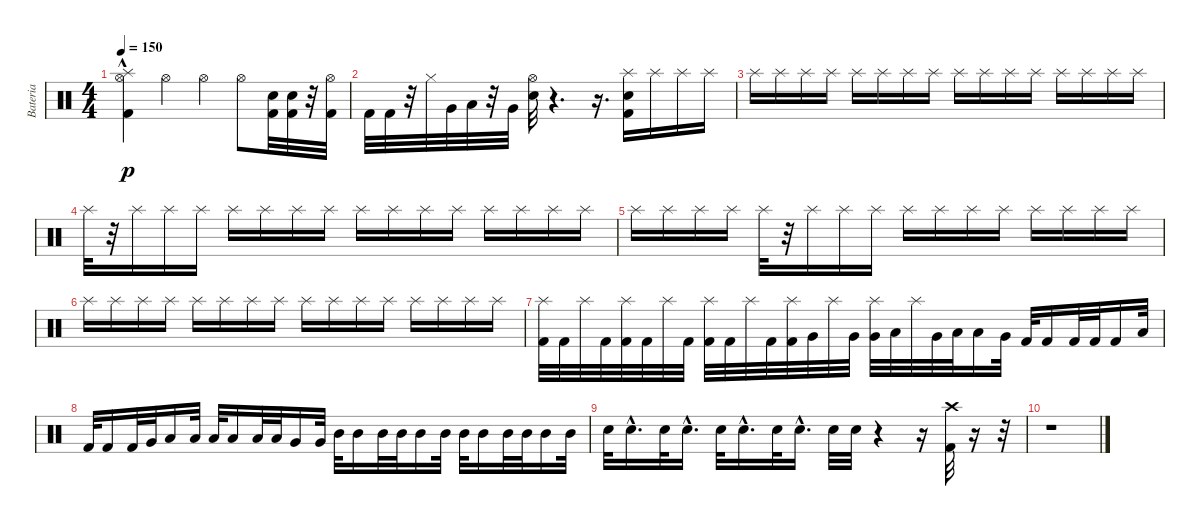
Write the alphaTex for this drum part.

\track ("Bateria" "Bateria") {instrument percussion}
\staff {score}
\articulation defaults
\ts (4 4)
\tempo 150
\clef neutral
\ks c
("Hi-Hat (open)" "Kick (hit) 2"{hac} "Splash (hit)"{hac}).4{dy p} "Hi-Hat (open)".4 "Hi-Hat (open)".4 "Hi-Hat (open)".8 ("Snare (hit) 2" "Kick (hit) 2").32 ("Snare (hit) 2" "Kick (hit) 2").32 r.32 ("Hi-Hat (open)" "Kick (hit) 2").32 |
"Kick (hit) 2".32 "Kick (hit) 2".32 r.32 "Hi-Hat (closed)".32 "Very Low Tom (hit)".32 "Low Tom (hit)".32 r.32 "Very Low Tom (hit)".32 ("Hi-Hat (open)" "Snare (hit) 2").32 r.4{d} r.16{d} ("Splash (hit)" "Snare (hit) 2" "Kick (hit) 2").16 "Splash (hit)".16 "Splash (hit)".16 "Splash (hit)".16 |
"Splash (hit)".16 "Splash (hit)".16 "Splash (hit)".16 "Splash (hit)".16 "Splash (hit)".16 "Splash (hit)".16 "Splash (hit)".16 "Splash (hit)".16 "Splash (hit)".16 "Splash (hit)".16 "Splash (hit)".16 "Splash (hit)".16 "Splash (hit)".16 "Splash (hit)".16 "Splash (hit)".16 "Splash (hit)".16 |
"Splash (hit)".32 r.32 "Splash (hit)".16 "Splash (hit)".16 "Splash (hit)".16 "Splash (hit)".16 "Splash (hit)".16 "Splash (hit)".16 "Splash (hit)".16 "Splash (hit)".16 "Splash (hit)".16 "Splash (hit)".16 "Splash (hit)".16 "Splash (hit)".16 "Splash (hit)".16 "Splash (hit)".16 "Splash (hit)".16 |
"Splash (hit)".16 "Splash (hit)".16 "Splash (hit)".16 "Splash (hit)".16 "Splash (hit)".32 r.32 "Splash (hit)".16 "Splash (hit)".16 "Splash (hit)".16 "Splash (hit)".16 "Splash (hit)".16 "Splash (hit)".16 "Splash (hit)".16 "Splash (hit)".16 "Splash (hit)".16 "Splash (hit)".16 "Splash (hit)".16 |
"Splash (hit)".16 "Splash (hit)".16 "Splash (hit)".16 "Splash (hit)".16 "Splash (hit)".16 "Splash (hit)".16 "Splash (hit)".16 "Splash (hit)".16 "Splash (hit)".16 "Splash (hit)".16 "Splash (hit)".16 "Splash (hit)".16 "Splash (hit)".16 "Splash (hit)".16 "Splash (hit)".16 "Splash (hit)".16 |
("Splash (hit)" "Kick (hit) 2").32 "Kick (hit) 2".32 "Splash (hit)".32 "Kick (hit) 2".32 ("Splash (hit)" "Kick (hit) 2").32 "Kick (hit) 2".32 "Splash (hit)".32 "Kick (hit) 2".32 ("Splash (hit)" "Kick (hit) 2").32 "Kick (hit) 2".32 "Splash (hit)".32 "Kick (hit) 2".32 ("Splash (hit)" "Kick (hit) 2").32 "Very Low Tom (hit)".32 "Splash (hit)".32 "Very Low Tom (hit)".32 ("Splash (hit)" "Very Low Tom (hit)").32 "Low Tom (hit)".32 "Splash (hit)".32 "Very Low Tom (hit)".32 "Low Tom (hit)".32 "Low Tom (hit)".16 "Very Low Tom (hit)".32 "Kick (hit) 2".32 "Kick (hit) 2".16 "Kick (hit) 2".32 "Kick (hit) 2".32 "Kick (hit) 2".16 "Low Tom (hit)".32 |
"Kick (hit) 2".32 "Kick (hit) 2".16 "Kick (hit) 2".32 "Very Low Tom (hit)".32 "Low Tom (hit)".16 "Low Tom (hit)".32 "Low Tom (hit)".32 "Low Tom (hit)".16 "Low Tom (hit)".32 "Low Tom (hit)".32 "Very Low Tom (hit)".16 "Very Low Tom (hit)".32 "Mid Tom (hit)".32 "Mid Tom (hit)".16 "Mid Tom (hit)".32 "Mid Tom (hit)".32 "Mid Tom (hit)".16 "Mid Tom (hit)".32 "Mid Tom (hit)".32 "Mid Tom (hit)".16 "Mid Tom (hit)".32 "Mid Tom (hit)".32 "Mid Tom (hit)".16 "Mid Tom (hit)".32 |
"Snare (hit) 2".32 "Snare (hit) 2"{hac}.16{d} "Snare (hit) 2".32 "Snare (hit) 2"{hac}.16{d} "Snare (hit) 2".32 "Snare (hit) 2"{hac}.16{d} "Snare (hit) 2".32 "Snare (hit) 2"{hac}.16{d} "Snare (hit) 2".32 "Snare (hit) 2".32 r.4 r.16 ("Crash high (hit)" "Kick (hit) 2").32 r.16 r.32 |
r.1
